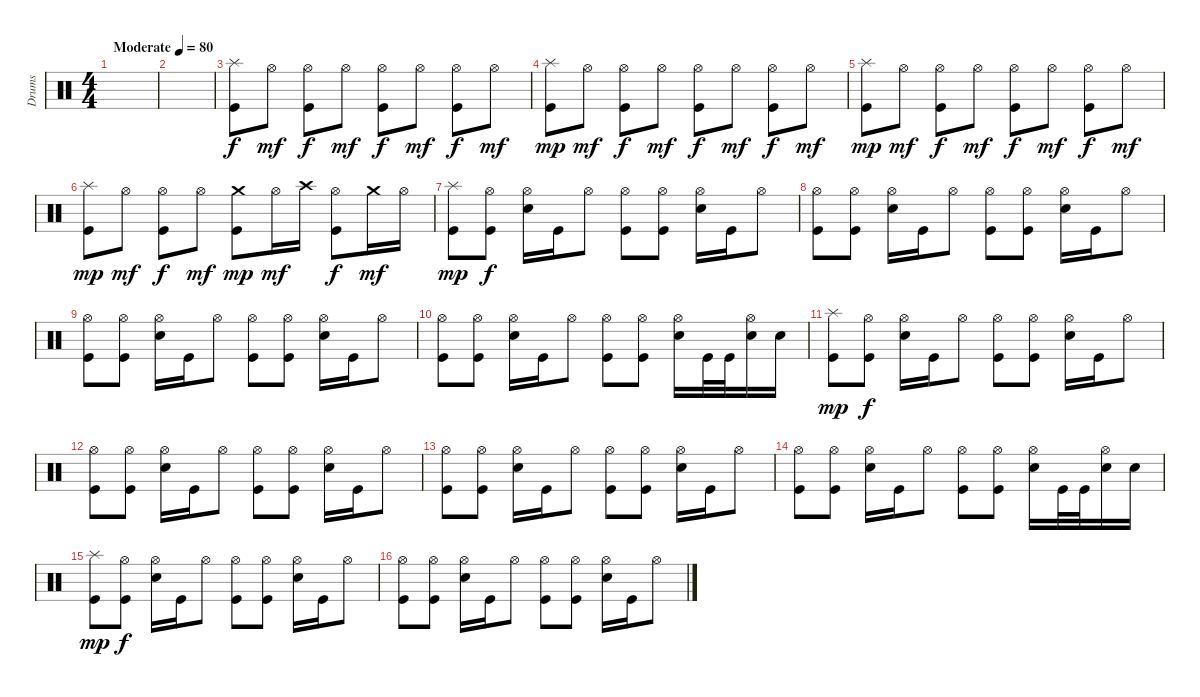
\track ("Drums" "Drums") {instrument percussion}
\staff {score}
\articulation defaults
\ts (4 4)
\tempo (80 "Moderate")
\clef neutral
\ks c
|
|
("Kick (hit)" "Splash (hit)").8 "Hi-Hat (open)".8{dy mf} ("Kick (hit)" "Hi-Hat (open)").8{dy f} "Hi-Hat (open)".8{dy mf} ("Kick (hit)" "Hi-Hat (open)").8{dy f} "Hi-Hat (open)".8{dy mf} ("Kick (hit)" "Hi-Hat (open)").8{dy f} "Hi-Hat (open)".8{dy mf} |
("Kick (hit)" "Splash (hit)").8{dy mp} "Hi-Hat (open)".8{dy mf} ("Kick (hit)" "Hi-Hat (open)").8{dy f} "Hi-Hat (open)".8{dy mf} ("Kick (hit)" "Hi-Hat (open)").8{dy f} "Hi-Hat (open)".8{dy mf} ("Kick (hit)" "Hi-Hat (open)").8{dy f} "Hi-Hat (open)".8{dy mf} |
("Kick (hit)" "Splash (hit)").8{dy mp} "Hi-Hat (open)".8{dy mf} ("Kick (hit)" "Hi-Hat (open)").8{dy f} "Hi-Hat (open)".8{dy mf} ("Kick (hit)" "Hi-Hat (open)").8{dy f} "Hi-Hat (open)".8{dy mf} ("Kick (hit)" "Hi-Hat (open)").8{dy f} "Hi-Hat (open)".8{dy mf} |
("Kick (hit)" "Splash (hit)").8{dy mp} "Hi-Hat (open)".8{dy mf} ("Kick (hit)" "Hi-Hat (open)").8{dy f} "Hi-Hat (open)".8{dy mf} ("Kick (hit)" "Crash medium (hit)").8{dy mp} "Hi-Hat (open)".16{dy mf} "Crash high (hit)".16 ("Kick (hit)" "Hi-Hat (open)").8{dy f} "Crash medium (hit)".16{dy mf} "Hi-Hat (open)".16 |
("Kick (hit)" "Splash (hit)").8{dy mp} ("Kick (hit)" "Hi-Hat (open)").8{dy f} ("Electric Snare (hit)" "Hi-Hat (open)").16 "Kick (hit)".16 "Hi-Hat (open)".8 ("Kick (hit)" "Hi-Hat (open)").8 ("Kick (hit)" "Hi-Hat (open)").8 ("Electric Snare (hit)" "Hi-Hat (open)").16 "Kick (hit)".16 "Hi-Hat (open)".8 |
("Kick (hit)" "Hi-Hat (open)").8 ("Kick (hit)" "Hi-Hat (open)").8 ("Electric Snare (hit)" "Hi-Hat (open)").16 "Kick (hit)".16 "Hi-Hat (open)".8 ("Kick (hit)" "Hi-Hat (open)").8 ("Kick (hit)" "Hi-Hat (open)").8 ("Electric Snare (hit)" "Hi-Hat (open)").16 "Kick (hit)".16 "Hi-Hat (open)".8 |
("Kick (hit)" "Hi-Hat (open)").8 ("Kick (hit)" "Hi-Hat (open)").8 ("Electric Snare (hit)" "Hi-Hat (open)").16 "Kick (hit)".16 "Hi-Hat (open)".8 ("Kick (hit)" "Hi-Hat (open)").8 ("Kick (hit)" "Hi-Hat (open)").8 ("Electric Snare (hit)" "Hi-Hat (open)").16 "Kick (hit)".16 "Hi-Hat (open)".8 |
("Kick (hit)" "Hi-Hat (open)").8 ("Kick (hit)" "Hi-Hat (open)").8 ("Electric Snare (hit)" "Hi-Hat (open)").16 "Kick (hit)".16 "Hi-Hat (open)".8 ("Kick (hit)" "Hi-Hat (open)").8 ("Kick (hit)" "Hi-Hat (open)").8 ("Electric Snare (hit)" "Hi-Hat (open)").16 "Kick (hit)".32 "Kick (hit)".32 ("Electric Snare (hit)" "Hi-Hat (open)").16 "Electric Snare (hit)".16 |
("Kick (hit)" "Splash (hit)").8{dy mp} ("Kick (hit)" "Hi-Hat (open)").8{dy f} ("Electric Snare (hit)" "Hi-Hat (open)").16 "Kick (hit)".16 "Hi-Hat (open)".8 ("Kick (hit)" "Hi-Hat (open)").8 ("Kick (hit)" "Hi-Hat (open)").8 ("Electric Snare (hit)" "Hi-Hat (open)").16 "Kick (hit)".16 "Hi-Hat (open)".8 |
("Kick (hit)" "Hi-Hat (open)").8 ("Kick (hit)" "Hi-Hat (open)").8 ("Electric Snare (hit)" "Hi-Hat (open)").16 "Kick (hit)".16 "Hi-Hat (open)".8 ("Kick (hit)" "Hi-Hat (open)").8 ("Kick (hit)" "Hi-Hat (open)").8 ("Electric Snare (hit)" "Hi-Hat (open)").16 "Kick (hit)".16 "Hi-Hat (open)".8 |
("Kick (hit)" "Hi-Hat (open)").8 ("Kick (hit)" "Hi-Hat (open)").8 ("Electric Snare (hit)" "Hi-Hat (open)").16 "Kick (hit)".16 "Hi-Hat (open)".8 ("Kick (hit)" "Hi-Hat (open)").8 ("Kick (hit)" "Hi-Hat (open)").8 ("Electric Snare (hit)" "Hi-Hat (open)").16 "Kick (hit)".16 "Hi-Hat (open)".8 |
("Kick (hit)" "Hi-Hat (open)").8 ("Kick (hit)" "Hi-Hat (open)").8 ("Electric Snare (hit)" "Hi-Hat (open)").16 "Kick (hit)".16 "Hi-Hat (open)".8 ("Kick (hit)" "Hi-Hat (open)").8 ("Kick (hit)" "Hi-Hat (open)").8 ("Electric Snare (hit)" "Hi-Hat (open)").16 "Kick (hit)".32 "Kick (hit)".32 ("Electric Snare (hit)" "Hi-Hat (open)").16 "Electric Snare (hit)".16 |
("Kick (hit)" "Splash (hit)").8{dy mp} ("Kick (hit)" "Hi-Hat (open)").8{dy f} ("Electric Snare (hit)" "Hi-Hat (open)").16 "Kick (hit)".16 "Hi-Hat (open)".8 ("Kick (hit)" "Hi-Hat (open)").8 ("Kick (hit)" "Hi-Hat (open)").8 ("Electric Snare (hit)" "Hi-Hat (open)").16 "Kick (hit)".16 "Hi-Hat (open)".8 |
("Kick (hit)" "Hi-Hat (open)").8 ("Kick (hit)" "Hi-Hat (open)").8 ("Electric Snare (hit)" "Hi-Hat (open)").16 "Kick (hit)".16 "Hi-Hat (open)".8 ("Kick (hit)" "Hi-Hat (open)").8 ("Kick (hit)" "Hi-Hat (open)").8 ("Electric Snare (hit)" "Hi-Hat (open)").16 "Kick (hit)".16 "Hi-Hat (open)".8
